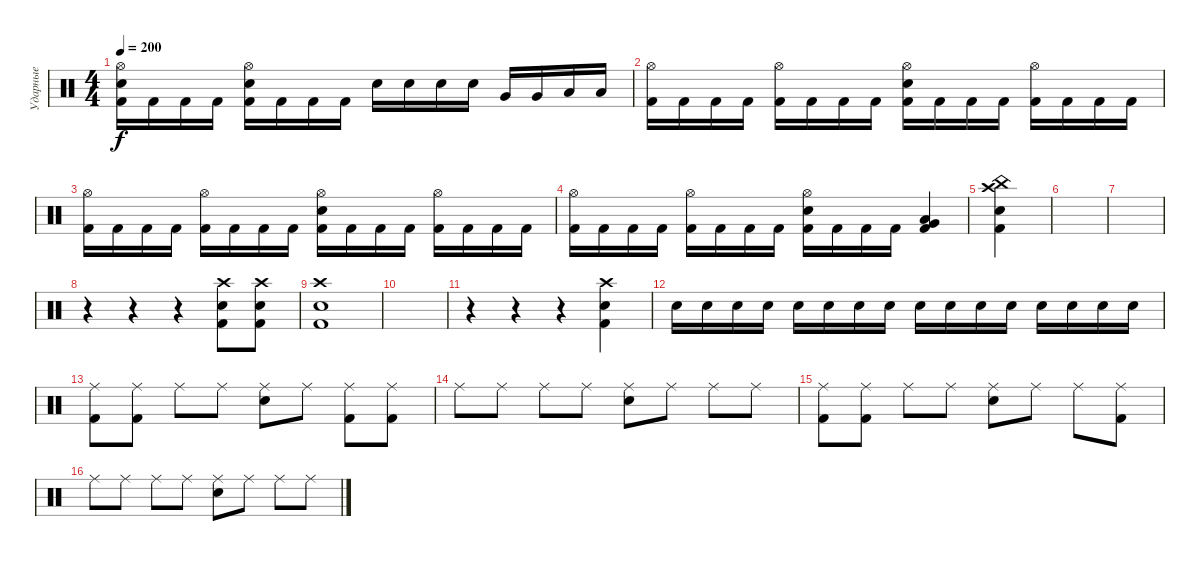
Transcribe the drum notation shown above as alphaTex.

\track ("Ударные" "Ударные") {instrument percussion}
\staff {score}
\articulation defaults
\ts (4 4)
\tempo 200
\clef neutral
\ks c
("Kick (hit) 2" "Electric Snare (hit)" "Hi-Hat (open)").16{dy f} "Kick (hit) 2".16 "Kick (hit) 2".16 "Kick (hit) 2".16 ("Kick (hit) 2" "Electric Snare (hit)" "Hi-Hat (open)").16 "Kick (hit) 2".16 "Kick (hit) 2".16 "Kick (hit) 2".16 "Electric Snare (hit)".16 "Electric Snare (hit)".16 "Snare (hit) 2".16 "Snare (hit) 2".16 "Very Low Tom (hit)".16 "Very Low Tom (hit)".16 "Low Floor Tom (hit)".16 "Low Floor Tom (hit)".16 |
("Kick (hit) 2" "Hi-Hat (open)").16 "Kick (hit) 2".16 "Kick (hit) 2".16 "Kick (hit) 2".16 ("Kick (hit) 2" "Hi-Hat (open)").16 "Kick (hit) 2".16 "Kick (hit) 2".16 "Kick (hit) 2".16 ("Kick (hit) 2" "Electric Snare (hit)" "Hi-Hat (open)").16 "Kick (hit) 2".16 "Kick (hit) 2".16 "Kick (hit) 2".16 ("Kick (hit) 2" "Hi-Hat (open)").16 "Kick (hit) 2".16 "Kick (hit) 2".16 "Kick (hit) 2".16 |
("Kick (hit) 2" "Hi-Hat (open)").16 "Kick (hit) 2".16 "Kick (hit) 2".16 "Kick (hit) 2".16 ("Kick (hit) 2" "Hi-Hat (open)").16 "Kick (hit) 2".16 "Kick (hit) 2".16 "Kick (hit) 2".16 ("Kick (hit) 2" "Electric Snare (hit)" "Hi-Hat (open)").16 "Kick (hit) 2".16 "Kick (hit) 2".16 "Kick (hit) 2".16 ("Kick (hit) 2" "Hi-Hat (open)").16 "Kick (hit) 2".16 "Kick (hit) 2".16 "Kick (hit) 2".16 |
("Kick (hit) 2" "Hi-Hat (open)").16 "Kick (hit) 2".16 "Kick (hit) 2".16 "Kick (hit) 2".16 ("Kick (hit) 2" "Hi-Hat (open)").16 "Kick (hit) 2".16 "Kick (hit) 2".16 "Kick (hit) 2".16 ("Kick (hit) 2" "Electric Snare (hit)" "Hi-Hat (open)").16 "Kick (hit) 2".16 "Kick (hit) 2".16 "Kick (hit) 2".16 ("Low Floor Tom (hit)" "Very Low Tom (hit)" "Kick (hit) 2").4 |
("Kick (hit) 2" "Electric Snare (hit)" "Crash high (hit)" "China (hit)").4 |
|
|
r.4 r.4 r.4 ("Kick (hit) 2" "Crash high (hit)" "Electric Snare (hit)").8 ("Crash high (hit)" "Kick (hit) 2" "Electric Snare (hit)").8 |
("Electric Snare (hit)" "Kick (hit) 2" "Crash high (hit)").1 |
|
r.4 r.4 r.4 ("Electric Snare (hit)" "Kick (hit) 2" "Crash high (hit)").4 |
"Electric Snare (hit)".16 "Electric Snare (hit)".16 "Electric Snare (hit)".16 "Electric Snare (hit)".16 "Electric Snare (hit)".16 "Electric Snare (hit)".16 "Electric Snare (hit)".16 "Electric Snare (hit)".16 "Electric Snare (hit)".16 "Electric Snare (hit)".16 "Electric Snare (hit)".16 "Electric Snare (hit)".16 "Electric Snare (hit)".16 "Electric Snare (hit)".16 "Electric Snare (hit)".16 "Electric Snare (hit)".16 |
("Kick (hit) 2" "Ride (middle)").8 ("Kick (hit) 2" "Ride (middle)").8 "Ride (middle)".8 "Ride (middle)".8 ("Electric Snare (hit)" "Ride (middle)").8 "Ride (middle)".8 ("Kick (hit) 2" "Ride (middle)").8 ("Kick (hit) 2" "Ride (middle)").8 |
"Ride (middle)".8 "Ride (middle)".8 "Ride (middle)".8 "Ride (middle)".8 ("Electric Snare (hit)" "Ride (middle)").8 "Ride (middle)".8 "Ride (middle)".8 "Ride (middle)".8 |
("Kick (hit) 2" "Ride (middle)").8 ("Kick (hit) 2" "Ride (middle)").8 "Ride (middle)".8 "Ride (middle)".8 ("Electric Snare (hit)" "Ride (middle)").8 "Ride (middle)".8 "Ride (middle)".8 ("Kick (hit) 2" "Ride (middle)").8 |
"Ride (middle)".8 "Ride (middle)".8 "Ride (middle)".8 "Ride (middle)".8 ("Electric Snare (hit)" "Ride (middle)").8 "Ride (middle)".8 "Ride (middle)".8 "Ride (middle)".8
